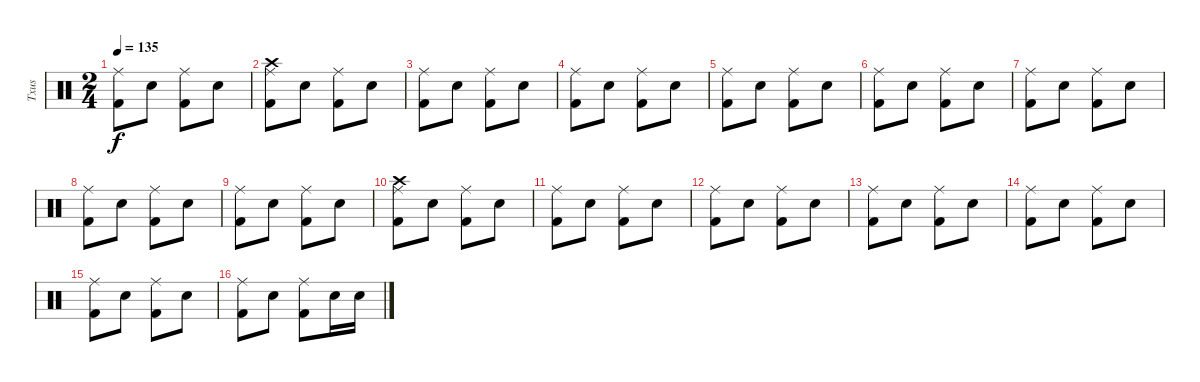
\track ("Txus" "Txus") {instrument percussion}
\staff {score}
\articulation defaults
\ts (2 4)
\tempo 135
\clef neutral
\ks c
("Ride (middle)" "Kick (hit) 2").8{dy f} "Snare (hit) 2".8 ("Ride (middle)" "Kick (hit) 2").8 "Snare (hit) 2".8 |
("Crash high (hit)" "Ride (middle)" "Kick (hit) 2").8 "Snare (hit) 2".8 ("Ride (middle)" "Kick (hit) 2").8 "Snare (hit) 2".8 |
("Ride (middle)" "Kick (hit) 2").8 "Snare (hit) 2".8 ("Ride (middle)" "Kick (hit) 2").8 "Snare (hit) 2".8 |
("Ride (middle)" "Kick (hit) 2").8 "Snare (hit) 2".8 ("Ride (middle)" "Kick (hit) 2").8 "Snare (hit) 2".8 |
("Ride (middle)" "Kick (hit) 2").8 "Snare (hit) 2".8 ("Ride (middle)" "Kick (hit) 2").8 "Snare (hit) 2".8 |
("Ride (middle)" "Kick (hit) 2").8 "Snare (hit) 2".8 ("Ride (middle)" "Kick (hit) 2").8 "Snare (hit) 2".8 |
("Ride (middle)" "Kick (hit) 2").8 "Snare (hit) 2".8 ("Ride (middle)" "Kick (hit) 2").8 "Snare (hit) 2".8 |
("Ride (middle)" "Kick (hit) 2").8 "Snare (hit) 2".8 ("Ride (middle)" "Kick (hit) 2").8 "Snare (hit) 2".8 |
("Ride (middle)" "Kick (hit) 2").8 "Snare (hit) 2".8 ("Ride (middle)" "Kick (hit) 2").8 "Snare (hit) 2".8 |
("Crash high (hit)" "Ride (middle)" "Kick (hit) 2").8 "Snare (hit) 2".8 ("Ride (middle)" "Kick (hit) 2").8 "Snare (hit) 2".8 |
("Ride (middle)" "Kick (hit) 2").8 "Snare (hit) 2".8 ("Ride (middle)" "Kick (hit) 2").8 "Snare (hit) 2".8 |
("Ride (middle)" "Kick (hit) 2").8 "Snare (hit) 2".8 ("Ride (middle)" "Kick (hit) 2").8 "Snare (hit) 2".8 |
("Ride (middle)" "Kick (hit) 2").8 "Snare (hit) 2".8 ("Ride (middle)" "Kick (hit) 2").8 "Snare (hit) 2".8 |
("Ride (middle)" "Kick (hit) 2").8 "Snare (hit) 2".8 ("Ride (middle)" "Kick (hit) 2").8 "Snare (hit) 2".8 |
("Ride (middle)" "Kick (hit) 2").8 "Snare (hit) 2".8 ("Ride (middle)" "Kick (hit) 2").8 "Snare (hit) 2".8 |
("Ride (middle)" "Kick (hit) 2").8 "Snare (hit) 2".8 ("Ride (middle)" "Kick (hit) 2").8 "Snare (hit) 2".16 "Snare (hit) 2".16
